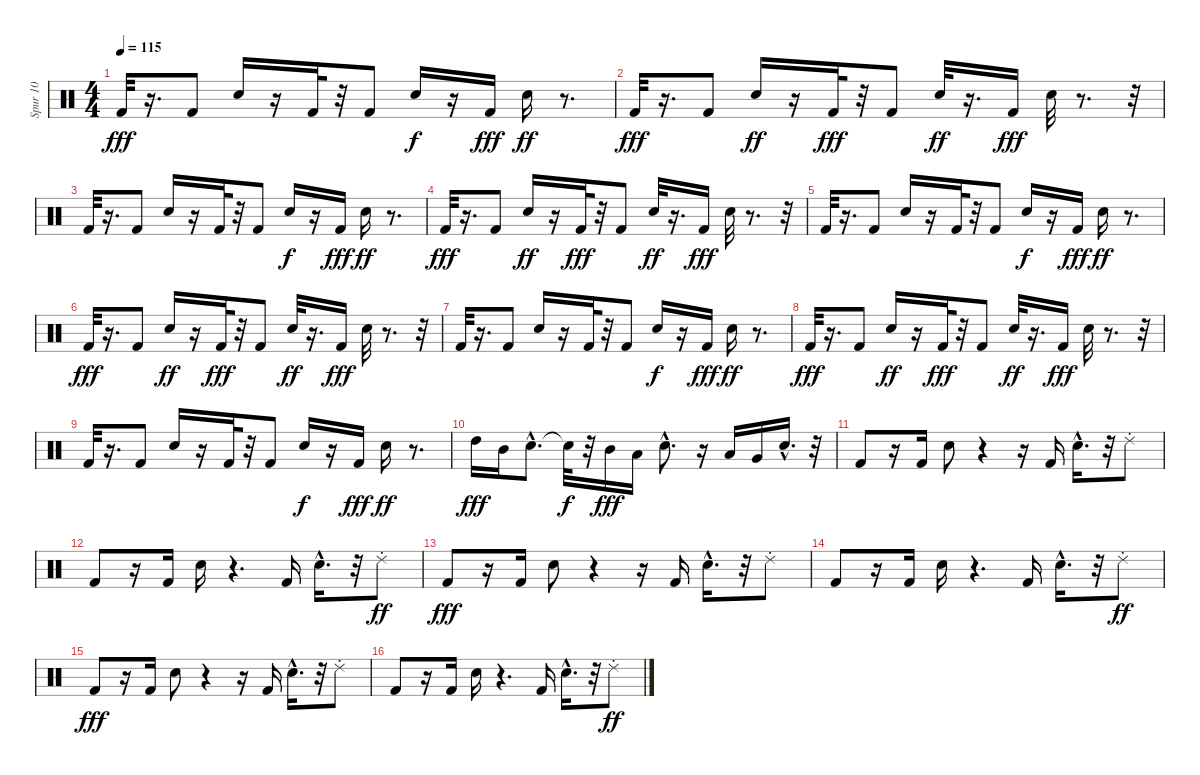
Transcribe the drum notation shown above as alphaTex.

\track ("Spur 10" "Spur 10") {instrument percussion}
\staff {score}
\articulation defaults
\ts (4 4)
\tempo 115
\clef neutral
\ks c "Kick (hit) 2".32{dy fff}
r.16{d} "Kick (hit) 2".8 "Metronome (bell)".16 r.16 "Kick (hit) 2".32 r.32 "Kick (hit) 2".8 "Metronome (bell)".16{dy f} r.16 "Kick (hit) 2".16{dy fff} "Metronome (bell)".16{dy ff} r.8{d} |
"Kick (hit) 2".32{dy fff} r.16{d} "Kick (hit) 2".8 "Metronome (bell)".16{dy ff} r.16 "Kick (hit) 2".32{dy fff} r.32 "Kick (hit) 2".8 "Metronome (bell)".32{dy ff} r.16{d} "Kick (hit) 2".16{dy fff} "Metronome (bell)".32 r.8{d} r.32 |
"Kick (hit) 2".32 r.16{d} "Kick (hit) 2".8 "Metronome (bell)".16 r.16 "Kick (hit) 2".32 r.32 "Kick (hit) 2".8 "Metronome (bell)".16{dy f} r.16 "Kick (hit) 2".16{dy fff} "Metronome (bell)".16{dy ff} r.8{d} |
"Kick (hit) 2".32{dy fff} r.16{d} "Kick (hit) 2".8 "Metronome (bell)".16{dy ff} r.16 "Kick (hit) 2".32{dy fff} r.32 "Kick (hit) 2".8 "Metronome (bell)".32{dy ff} r.16{d} "Kick (hit) 2".16{dy fff} "Metronome (bell)".32 r.8{d} r.32 |
"Kick (hit) 2".32 r.16{d} "Kick (hit) 2".8 "Metronome (bell)".16 r.16 "Kick (hit) 2".32 r.32 "Kick (hit) 2".8 "Metronome (bell)".16{dy f} r.16 "Kick (hit) 2".16{dy fff} "Metronome (bell)".16{dy ff} r.8{d} |
"Kick (hit) 2".32{dy fff} r.16{d} "Kick (hit) 2".8 "Metronome (bell)".16{dy ff} r.16 "Kick (hit) 2".32{dy fff} r.32 "Kick (hit) 2".8 "Metronome (bell)".32{dy ff} r.16{d} "Kick (hit) 2".16{dy fff} "Metronome (bell)".32 r.8{d} r.32 |
"Kick (hit) 2".32 r.16{d} "Kick (hit) 2".8 "Metronome (bell)".16 r.16 "Kick (hit) 2".32 r.32 "Kick (hit) 2".8 "Metronome (bell)".16{dy f} r.16 "Kick (hit) 2".16{dy fff} "Metronome (bell)".16{dy ff} r.8{d} |
"Kick (hit) 2".32{dy fff} r.16{d} "Kick (hit) 2".8 "Metronome (bell)".16{dy ff} r.16 "Kick (hit) 2".32{dy fff} r.32 "Kick (hit) 2".8 "Metronome (bell)".32{dy ff} r.16{d} "Kick (hit) 2".16{dy fff} "Metronome (bell)".32 r.8{d} r.32 |
"Kick (hit) 2".32 r.16{d} "Kick (hit) 2".8 "Metronome (bell)".16 r.16 "Kick (hit) 2".32 r.32 "Kick (hit) 2".8 "Metronome (bell)".16{dy f} r.16 "Kick (hit) 2".16{dy fff} "Metronome (bell)".16{dy ff} r.8{d} |
"High Tom (hit)".16{dy fff} "Mid Tom (hit)".16 "Metronome (bell)"{hac}.8{d} "Snare (hit)"{t}.32{dy f} r.32 "Mid Tom (hit)".16{dy fff} "Low Tom (hit)".16 "Metronome (bell)"{hac}.8{d} r.16 "Low Tom (hit)".16 "Very Low Tom (hit)".16 "Metronome (bell)"{hac}.16{d} r.32 |
"Kick (hit) 2".8 r.16 "Kick (hit) 2".16 "Metronome (bell)".8 r.4 r.16 "Kick (hit) 2".16 "Metronome (bell)"{hac}.16{d} r.32 "Ride (choke) 2".8 |
"Kick (hit) 2".8 r.16 "Kick (hit) 2".16 "Metronome (bell)".16 r.4{d} "Kick (hit) 2".16 "Metronome (bell)"{hac}.16{d} r.32 "Ride (choke) 2".8{dy ff} |
"Kick (hit) 2".8{dy fff} r.16 "Kick (hit) 2".16 "Metronome (bell)".8 r.4 r.16 "Kick (hit) 2".16 "Metronome (bell)"{hac}.16{d} r.32 "Ride (choke) 2".8 |
"Kick (hit) 2".8 r.16 "Kick (hit) 2".16 "Metronome (bell)".16 r.4{d} "Kick (hit) 2".16 "Metronome (bell)"{hac}.16{d} r.32 "Ride (choke) 2".8{dy ff} |
"Kick (hit) 2".8{dy fff} r.16 "Kick (hit) 2".16 "Metronome (bell)".8 r.4 r.16 "Kick (hit) 2".16 "Metronome (bell)"{hac}.16{d} r.32 "Ride (choke) 2".8 |
"Kick (hit) 2".8 r.16 "Kick (hit) 2".16 "Metronome (bell)".16 r.4{d} "Kick (hit) 2".16 "Metronome (bell)"{hac}.16{d} r.32 "Ride (choke) 2".8{dy ff}
